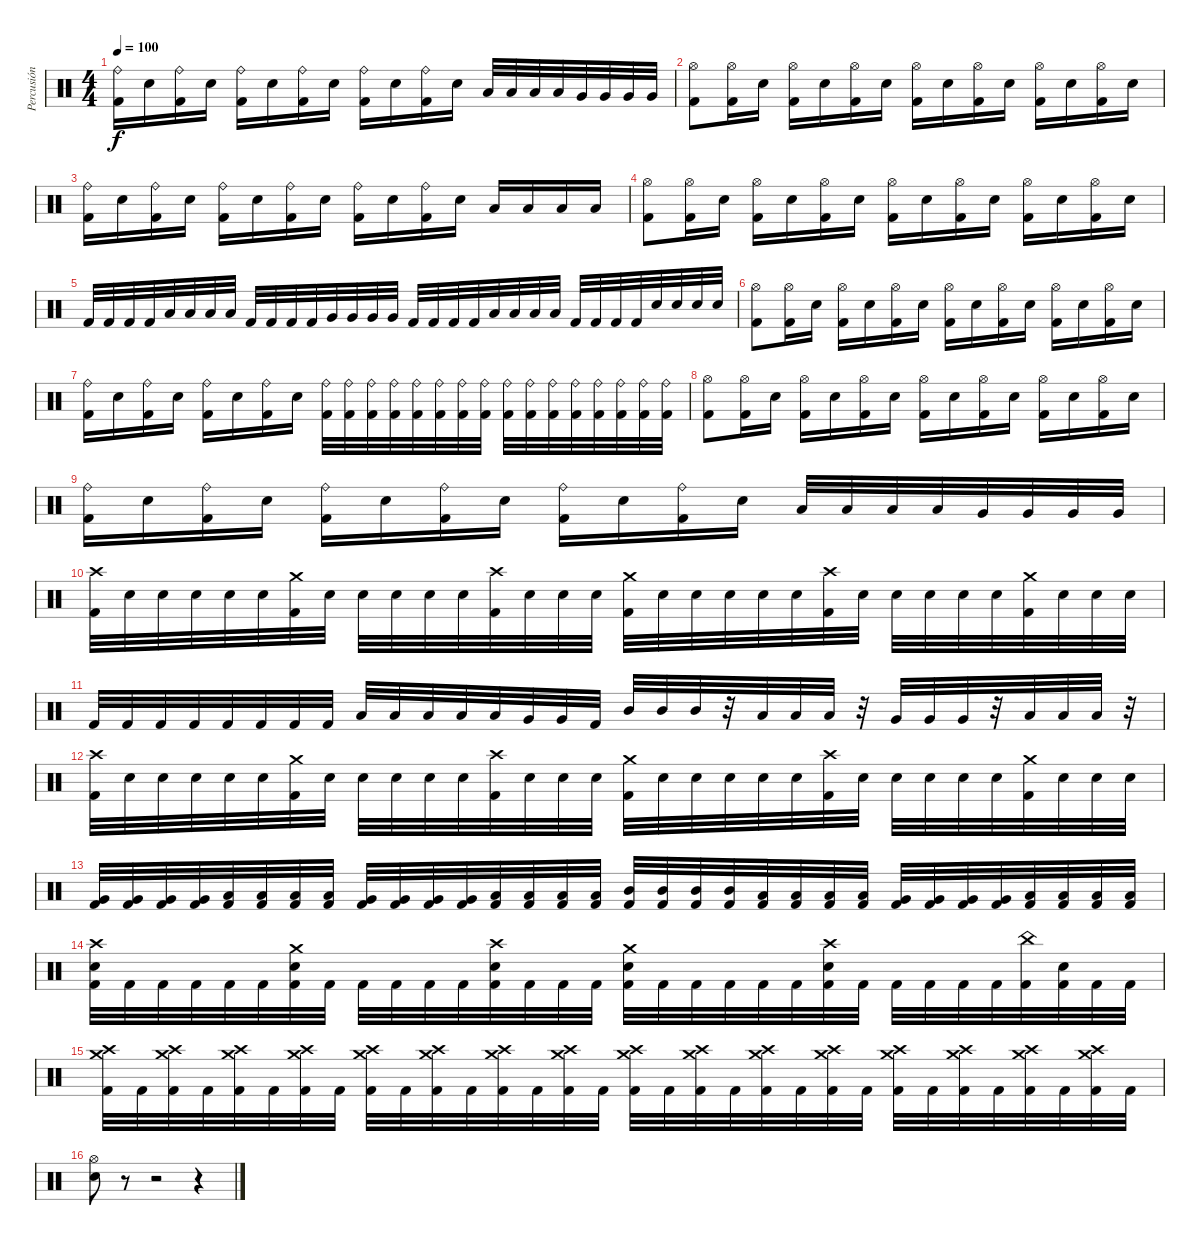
\track ("Percusión" "Percusión") {instrument percussion}
\staff {score}
\articulation defaults
\ts (4 4)
\tempo 100
\clef neutral
\ks c
("Ride (bell)" "Kick (hit) 2").16{dy f} "Snare (hit) 2".16 ("Ride (bell)" "Kick (hit) 2").16 "Snare (hit) 2".16 ("Ride (bell)" "Kick (hit) 2").16 "Snare (hit) 2".16 ("Ride (bell)" "Kick (hit) 2").16 "Snare (hit) 2".16 ("Ride (bell)" "Kick (hit) 2").16 "Snare (hit) 2".16 ("Ride (bell)" "Kick (hit) 2").16 "Snare (hit) 2".16 "Low Tom (hit)".32 "Low Tom (hit)".32 "Low Tom (hit)".32 "Low Tom (hit)".32 "Very Low Tom (hit)".32 "Very Low Tom (hit)".32 "Very Low Tom (hit)".32 "Very Low Tom (hit)".32 |
("Hi-Hat (open)" "Kick (hit) 2").8 ("Hi-Hat (open)" "Kick (hit) 2").16 "Snare (hit) 2".16 ("Hi-Hat (open)" "Kick (hit) 2").16 "Snare (hit) 2".16 ("Hi-Hat (open)" "Kick (hit) 2").16 "Snare (hit) 2".16 ("Hi-Hat (open)" "Kick (hit) 2").16 "Snare (hit) 2".16 ("Hi-Hat (open)" "Kick (hit) 2").16 "Snare (hit) 2".16 ("Hi-Hat (open)" "Kick (hit) 2").16 "Snare (hit) 2".16 ("Hi-Hat (open)" "Kick (hit) 2").16 "Snare (hit) 2".16 |
("Ride (bell)" "Kick (hit) 2").16 "Snare (hit) 2".16 ("Ride (bell)" "Kick (hit) 2").16 "Snare (hit) 2".16 ("Ride (bell)" "Kick (hit) 2").16 "Snare (hit) 2".16 ("Ride (bell)" "Kick (hit) 2").16 "Snare (hit) 2".16 ("Ride (bell)" "Kick (hit) 2").16 "Snare (hit) 2".16 ("Ride (bell)" "Kick (hit) 2").16 "Snare (hit) 2".16 "Low Tom (hit)".16 "Low Tom (hit)".16 "Low Floor Tom (hit)".16 "Low Floor Tom (hit)".16 |
("Hi-Hat (open)" "Kick (hit) 2").8 ("Hi-Hat (open)" "Kick (hit) 2").16 "Snare (hit) 2".16 ("Hi-Hat (open)" "Kick (hit) 2").16 "Snare (hit) 2".16 ("Hi-Hat (open)" "Kick (hit) 2").16 "Snare (hit) 2".16 ("Hi-Hat (open)" "Kick (hit) 2").16 "Snare (hit) 2".16 ("Hi-Hat (open)" "Kick (hit) 2").16 "Snare (hit) 2".16 ("Hi-Hat (open)" "Kick (hit) 2").16 "Snare (hit) 2".16 ("Hi-Hat (open)" "Kick (hit) 2").16 "Snare (hit) 2".16 |
"Kick (hit) 2".32 "Kick (hit) 2".32 "Kick (hit) 2".32 "Kick (hit) 2".32 "Low Tom (hit)".32 "Low Tom (hit)".32 "Low Tom (hit)".32 "Low Tom (hit)".32 "Kick (hit) 2".32 "Kick (hit) 2".32 "Kick (hit) 2".32 "Kick (hit) 2".32 "Very Low Tom (hit)".32 "Very Low Tom (hit)".32 "Very Low Tom (hit)".32 "Very Low Tom (hit)".32 "Kick (hit) 2".32 "Kick (hit) 2".32 "Kick (hit) 2".32 "Kick (hit) 2".32 "Low Floor Tom (hit)".32 "Low Floor Tom (hit)".32 "Low Floor Tom (hit)".32 "Low Floor Tom (hit)".32 "Kick (hit) 2".32 "Kick (hit) 2".32 "Kick (hit) 2".32 "Kick (hit) 2".32 "Snare (hit) 2".32 "Snare (hit) 2".32 "Snare (hit) 2".32 "Snare (hit) 2".32 |
("Hi-Hat (open)" "Kick (hit) 2").8 ("Hi-Hat (open)" "Kick (hit) 2").16 "Snare (hit) 2".16 ("Hi-Hat (open)" "Kick (hit) 2").16 "Snare (hit) 2".16 ("Hi-Hat (open)" "Kick (hit) 2").16 "Snare (hit) 2".16 ("Hi-Hat (open)" "Kick (hit) 2").16 "Snare (hit) 2".16 ("Hi-Hat (open)" "Kick (hit) 2").16 "Snare (hit) 2".16 ("Hi-Hat (open)" "Kick (hit) 2").16 "Snare (hit) 2".16 ("Hi-Hat (open)" "Kick (hit) 2").16 "Snare (hit) 2".16 |
("Ride (bell)" "Kick (hit) 2").16 "Snare (hit) 2".16 ("Ride (bell)" "Kick (hit) 2").16 "Snare (hit) 2".16 ("Ride (bell)" "Kick (hit) 2").16 "Snare (hit) 2".16 ("Ride (bell)" "Kick (hit) 2").16 "Snare (hit) 2".16 ("Ride (bell)" "Kick (hit) 2").32 ("Ride (bell)" "Kick (hit) 2").32 ("Ride (bell)" "Kick (hit) 2").32 ("Ride (bell)" "Kick (hit) 2").32 ("Ride (bell)" "Kick (hit) 2").32 ("Ride (bell)" "Kick (hit) 2").32 ("Ride (bell)" "Kick (hit) 2").32 ("Ride (bell)" "Kick (hit) 2").32 ("Ride (bell)" "Kick (hit) 2").32 ("Ride (bell)" "Kick (hit) 2").32 ("Ride (bell)" "Kick (hit) 2").32 ("Ride (bell)" "Kick (hit) 2").32 ("Ride (bell)" "Kick (hit) 2").32 ("Ride (bell)" "Kick (hit) 2").32 ("Ride (bell)" "Kick (hit) 2").32 ("Ride (bell)" "Kick (hit) 2").32 |
("Hi-Hat (open)" "Kick (hit) 2").8 ("Hi-Hat (open)" "Kick (hit) 2").16 "Snare (hit) 2".16 ("Hi-Hat (open)" "Kick (hit) 2").16 "Snare (hit) 2".16 ("Hi-Hat (open)" "Kick (hit) 2").16 "Snare (hit) 2".16 ("Hi-Hat (open)" "Kick (hit) 2").16 "Snare (hit) 2".16 ("Hi-Hat (open)" "Kick (hit) 2").16 "Snare (hit) 2".16 ("Hi-Hat (open)" "Kick (hit) 2").16 "Snare (hit) 2".16 ("Hi-Hat (open)" "Kick (hit) 2").16 "Snare (hit) 2".16 |
("Ride (bell)" "Kick (hit) 2").16 "Snare (hit) 2".16 ("Ride (bell)" "Kick (hit) 2").16 "Snare (hit) 2".16 ("Ride (bell)" "Kick (hit) 2").16 "Snare (hit) 2".16 ("Ride (bell)" "Kick (hit) 2").16 "Snare (hit) 2".16 ("Ride (bell)" "Kick (hit) 2").16 "Snare (hit) 2".16 ("Ride (bell)" "Kick (hit) 2").16 "Snare (hit) 2".16 "Low Tom (hit)".32 "Low Tom (hit)".32 "Low Tom (hit)".32 "Low Tom (hit)".32 "Very Low Tom (hit)".32 "Very Low Tom (hit)".32 "Very Low Tom (hit)".32 "Very Low Tom (hit)".32 |
("Kick (hit) 2" "Crash high (hit)").32 "Snare (hit) 2".32 "Snare (hit) 2".32 "Snare (hit) 2".32 "Snare (hit) 2".32 "Snare (hit) 2".32 ("Crash medium (hit)" "Kick (hit) 2").32 "Snare (hit) 2".32 "Snare (hit) 2".32 "Snare (hit) 2".32 "Snare (hit) 2".32 "Snare (hit) 2".32 ("Crash high (hit)" "Kick (hit) 2").32 "Snare (hit) 2".32 "Snare (hit) 2".32 "Snare (hit) 2".32 ("Kick (hit) 2" "Crash medium (hit)").32 "Snare (hit) 2".32 "Snare (hit) 2".32 "Snare (hit) 2".32 "Snare (hit) 2".32 "Snare (hit) 2".32 ("Kick (hit) 2" "Crash high (hit)").32 "Snare (hit) 2".32 "Snare (hit) 2".32 "Snare (hit) 2".32 "Snare (hit) 2".32 "Snare (hit) 2".32 ("Kick (hit) 2" "Crash medium (hit)").32 "Snare (hit) 2".32 "Snare (hit) 2".32 "Snare (hit) 2".32 |
"Kick (hit) 2".32 "Kick (hit) 2".32 "Kick (hit) 2".32 "Kick (hit) 2".32 "Kick (hit) 2".32 "Kick (hit) 2".32 "Kick (hit) 2".32 "Kick (hit) 2".32 "Low Tom (hit)".32 "Low Tom (hit)".32 "Low Tom (hit)".32 "Low Tom (hit)".32 "Low Tom (hit)".32 "Very Low Tom (hit)".32 "Very Low Tom (hit)".32 "Kick (hit) 2".32 "Mid Tom (hit)".32 "Mid Tom (hit)".32 "Mid Tom (hit)".32 r.32 "Low Tom (hit)".32 "Low Tom (hit)".32 "Low Tom (hit)".32 r.32 "Very Low Tom (hit)".32 "Very Low Tom (hit)".32 "Very Low Tom (hit)".32 r.32 "Low Floor Tom (hit)".32 "Low Floor Tom (hit)".32 "Low Floor Tom (hit)".32 r.32 |
("Kick (hit) 2" "Crash high (hit)").32 "Snare (hit) 2".32 "Snare (hit) 2".32 "Snare (hit) 2".32 "Snare (hit) 2".32 "Snare (hit) 2".32 ("Crash medium (hit)" "Kick (hit) 2").32 "Snare (hit) 2".32 "Snare (hit) 2".32 "Snare (hit) 2".32 "Snare (hit) 2".32 "Snare (hit) 2".32 ("Crash high (hit)" "Kick (hit) 2").32 "Snare (hit) 2".32 "Snare (hit) 2".32 "Snare (hit) 2".32 ("Kick (hit) 2" "Crash medium (hit)").32 "Snare (hit) 2".32 "Snare (hit) 2".32 "Snare (hit) 2".32 "Snare (hit) 2".32 "Snare (hit) 2".32 ("Kick (hit) 2" "Crash high (hit)").32 "Snare (hit) 2".32 "Snare (hit) 2".32 "Snare (hit) 2".32 "Snare (hit) 2".32 "Snare (hit) 2".32 ("Kick (hit) 2" "Crash medium (hit)").32 "Snare (hit) 2".32 "Snare (hit) 2".32 "Snare (hit) 2".32 |
("Kick (hit) 2" "Very Low Tom (hit)").32 ("Kick (hit) 2" "Very Low Tom (hit)").32 ("Kick (hit) 2" "Very Low Tom (hit)").32 ("Kick (hit) 2" "Very Low Tom (hit)").32 ("Kick (hit) 2" "Low Tom (hit)").32 ("Kick (hit) 2" "Low Tom (hit)").32 ("Kick (hit) 2" "Low Tom (hit)").32 ("Kick (hit) 2" "Low Tom (hit)").32 ("Kick (hit) 2" "Very Low Tom (hit)").32 ("Kick (hit) 2" "Very Low Tom (hit)").32 ("Kick (hit) 2" "Very Low Tom (hit)").32 ("Kick (hit) 2" "Very Low Tom (hit)").32 ("Kick (hit) 2" "Low Tom (hit)").32 ("Kick (hit) 2" "Low Tom (hit)").32 ("Kick (hit) 2" "Low Tom (hit)").32 ("Kick (hit) 2" "Low Tom (hit)").32 ("Kick (hit) 2" "Mid Tom (hit)").32 ("Kick (hit) 2" "Mid Tom (hit)").32 ("Kick (hit) 2" "Mid Tom (hit)").32 ("Kick (hit) 2" "Mid Tom (hit)").32 ("Kick (hit) 2" "Low Tom (hit)").32 ("Kick (hit) 2" "Low Tom (hit)").32 ("Kick (hit) 2" "Low Tom (hit)").32 ("Kick (hit) 2" "Low Tom (hit)").32 ("Kick (hit) 2" "Very Low Tom (hit)").32 ("Kick (hit) 2" "Very Low Tom (hit)").32 ("Kick (hit) 2" "Very Low Tom (hit)").32 ("Kick (hit) 2" "Very Low Tom (hit)").32 ("Kick (hit) 2" "Low Floor Tom (hit)").32 ("Kick (hit) 2" "Low Floor Tom (hit)").32 ("Kick (hit) 2" "Low Floor Tom (hit)").32 ("Kick (hit) 2" "Low Floor Tom (hit)").32 |
("Kick (hit) 2" "Snare (hit) 2" "Crash high (hit)").32 "Kick (hit) 2".32 "Kick (hit) 2".32 "Kick (hit) 2".32 "Kick (hit) 2".32 "Kick (hit) 2".32 ("Kick (hit) 2" "Snare (hit) 2" "Crash medium (hit)").32 "Kick (hit) 2".32 "Kick (hit) 2".32 "Kick (hit) 2".32 "Kick (hit) 2".32 "Kick (hit) 2".32 ("Kick (hit) 2" "Snare (hit) 2" "Crash high (hit)").32 "Kick (hit) 2".32 "Kick (hit) 2".32 "Kick (hit) 2".32 ("Kick (hit) 2" "Snare (hit) 2" "Crash medium (hit)").32 "Kick (hit) 2".32 "Kick (hit) 2".32 "Kick (hit) 2".32 "Kick (hit) 2".32 "Kick (hit) 2".32 ("Kick (hit) 2" "Snare (hit) 2" "Crash high (hit)").32 "Kick (hit) 2".32 "Kick (hit) 2".32 "Kick (hit) 2".32 "Kick (hit) 2".32 "Kick (hit) 2".32 ("Kick (hit) 2" "China (hit)").32 ("Kick (hit) 2" "Snare (hit) 2").32 "Kick (hit) 2".32 "Kick (hit) 2".32 |
("Kick (hit) 2" "Crash medium (hit)" "Crash high (hit)").32 "Kick (hit) 2".32 ("Kick (hit) 2" "Crash medium (hit)" "Crash high (hit)").32 "Kick (hit) 2".32 ("Kick (hit) 2" "Crash medium (hit)" "Crash high (hit)").32 "Kick (hit) 2".32 ("Kick (hit) 2" "Crash medium (hit)" "Crash high (hit)").32 "Kick (hit) 2".32 ("Kick (hit) 2" "Crash medium (hit)" "Crash high (hit)").32 "Kick (hit) 2".32 ("Kick (hit) 2" "Crash medium (hit)" "Crash high (hit)").32 "Kick (hit) 2".32 ("Kick (hit) 2" "Crash medium (hit)" "Crash high (hit)").32 "Kick (hit) 2".32 ("Kick (hit) 2" "Crash medium (hit)" "Crash high (hit)").32 "Kick (hit) 2".32 ("Kick (hit) 2" "Crash medium (hit)" "Crash high (hit)").32 "Kick (hit) 2".32 ("Kick (hit) 2" "Crash medium (hit)" "Crash high (hit)").32 "Kick (hit) 2".32 ("Kick (hit) 2" "Crash medium (hit)" "Crash high (hit)").32 "Kick (hit) 2".32 ("Kick (hit) 2" "Crash medium (hit)" "Crash high (hit)").32 "Kick (hit) 2".32 ("Kick (hit) 2" "Crash medium (hit)" "Crash high (hit)").32 "Kick (hit) 2".32 ("Kick (hit) 2" "Crash medium (hit)" "Crash high (hit)").32 "Kick (hit) 2".32 ("Kick (hit) 2" "Crash medium (hit)" "Crash high (hit)").32 "Kick (hit) 2".32 ("Kick (hit) 2" "Crash medium (hit)" "Crash high (hit)").32 "Kick (hit) 2".32 |
("Snare (hit) 2" "Hi-Hat (open)").8 r.8 r.2 r.4
